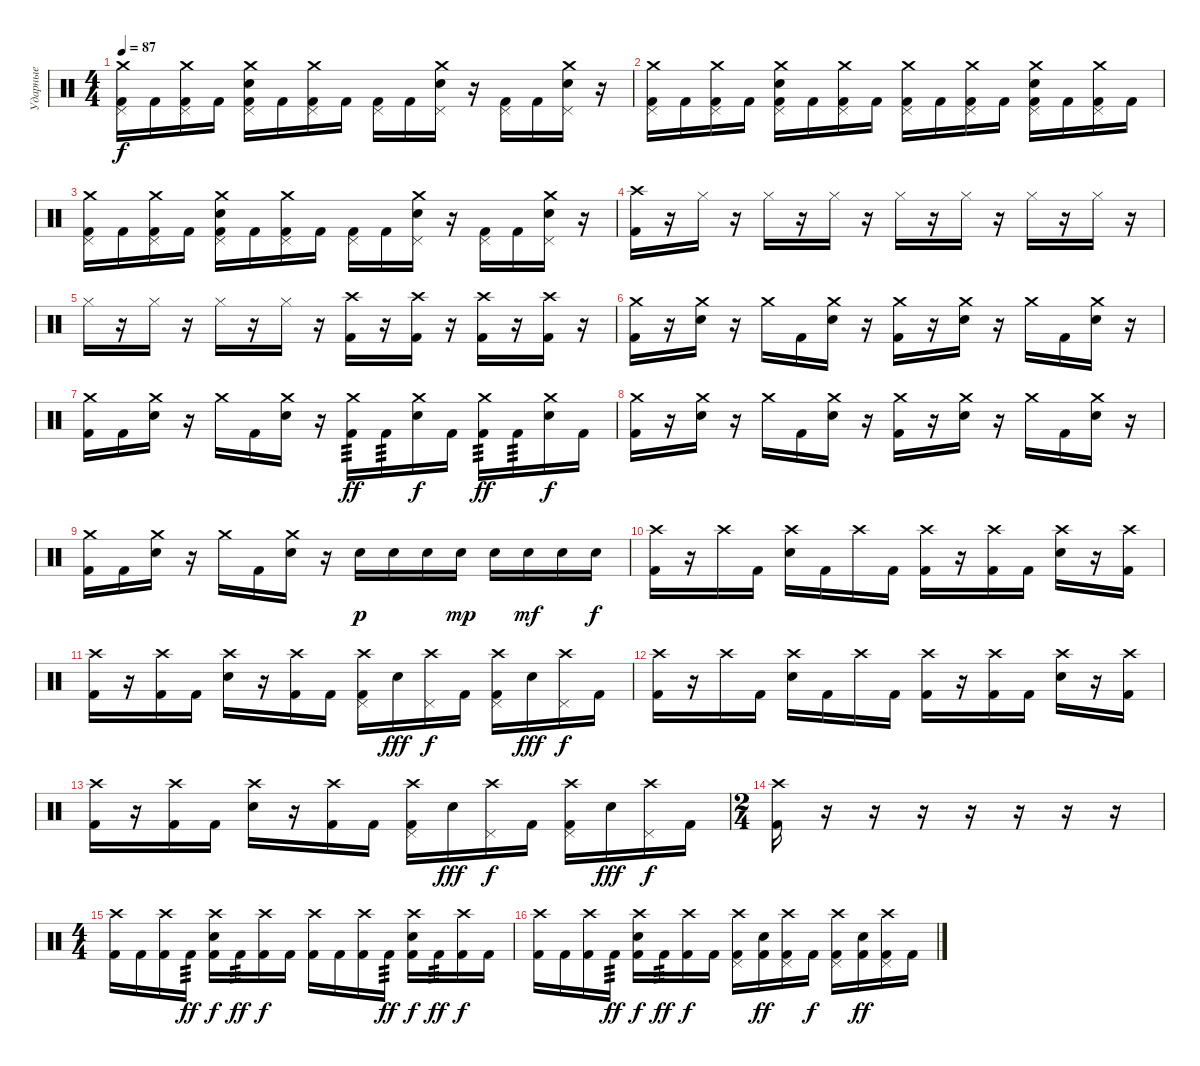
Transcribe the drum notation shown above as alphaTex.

\track ("Ударные" "Ударные") {instrument percussion}
\staff {score}
\articulation defaults
\ts (4 4)
\tempo 87
\clef neutral
\ks c
("Crash medium (hit)" "Pedal Hi-Hat (hit)" "Kick (hit) 2").16{dy f} "Kick (hit) 2".16 ("Crash medium (hit)" "Pedal Hi-Hat (hit)" "Kick (hit) 2").16 "Kick (hit) 2".16 ("Crash medium (hit)" "Pedal Hi-Hat (hit)" "Electric Snare (hit)" "Kick (hit) 2").16 "Kick (hit) 2".16 ("Crash medium (hit)" "Pedal Hi-Hat (hit)" "Kick (hit) 2").16 "Kick (hit) 2".16 ("Pedal Hi-Hat (hit)" "Kick (hit) 2").16 "Kick (hit) 2".16 ("Crash medium (hit)" "Pedal Hi-Hat (hit)" "Electric Snare (hit)").16 r.16 ("Pedal Hi-Hat (hit)" "Kick (hit) 2").16 "Kick (hit) 2".16 ("Crash medium (hit)" "Pedal Hi-Hat (hit)" "Electric Snare (hit)").16 r.16 |
("Crash medium (hit)" "Pedal Hi-Hat (hit)" "Kick (hit) 2").16 "Kick (hit) 2".16 ("Crash medium (hit)" "Pedal Hi-Hat (hit)" "Kick (hit) 2").16 "Kick (hit) 2".16 ("Crash medium (hit)" "Pedal Hi-Hat (hit)" "Electric Snare (hit)" "Kick (hit) 2").16 "Kick (hit) 2".16 ("Crash medium (hit)" "Pedal Hi-Hat (hit)" "Kick (hit) 2").16 "Kick (hit) 2".16 ("Crash medium (hit)" "Pedal Hi-Hat (hit)" "Kick (hit) 2").16 "Kick (hit) 2".16 ("Crash medium (hit)" "Pedal Hi-Hat (hit)" "Kick (hit) 2").16 "Kick (hit) 2".16 ("Crash medium (hit)" "Pedal Hi-Hat (hit)" "Electric Snare (hit)" "Kick (hit) 2").16 "Kick (hit) 2".16 ("Crash medium (hit)" "Pedal Hi-Hat (hit)" "Kick (hit) 2").16 "Kick (hit) 2".16 |
("Crash medium (hit)" "Pedal Hi-Hat (hit)" "Kick (hit) 2").16 "Kick (hit) 2".16 ("Crash medium (hit)" "Pedal Hi-Hat (hit)" "Kick (hit) 2").16 "Kick (hit) 2".16 ("Crash medium (hit)" "Pedal Hi-Hat (hit)" "Electric Snare (hit)" "Kick (hit) 2").16 "Kick (hit) 2".16 ("Crash medium (hit)" "Pedal Hi-Hat (hit)" "Kick (hit) 2").16 "Kick (hit) 2".16 ("Pedal Hi-Hat (hit)" "Kick (hit) 2").16 "Kick (hit) 2".16 ("Crash medium (hit)" "Pedal Hi-Hat (hit)" "Electric Snare (hit)").16 r.16 ("Pedal Hi-Hat (hit)" "Kick (hit) 2").16 "Kick (hit) 2".16 ("Crash medium (hit)" "Pedal Hi-Hat (hit)" "Electric Snare (hit)").16 r.16 |
("Crash high (hit)" "Kick (hit) 2").16 r.16 "Hi-Hat (closed)".16 r.16 "Hi-Hat (closed)".16 r.16 "Hi-Hat (closed)".16 r.16 "Hi-Hat (closed)".16 r.16 "Hi-Hat (closed)".16 r.16 "Hi-Hat (closed)".16 r.16 "Hi-Hat (closed)".16 r.16 |
"Hi-Hat (closed)".16 r.16 "Hi-Hat (closed)".16 r.16 "Hi-Hat (closed)".16 r.16 "Hi-Hat (closed)".16 r.16 ("Crash high (hit)" "Kick (hit) 2").16 r.16 ("Crash high (hit)" "Kick (hit) 2").16 r.16 ("Crash high (hit)" "Kick (hit) 2").16 r.16 ("Crash high (hit)" "Kick (hit) 2").16 r.16 |
("Crash medium (hit)" "Kick (hit) 2").16 r.16 ("Crash medium (hit)" "Electric Snare (hit)").16 r.16 "Crash medium (hit)".16 "Kick (hit) 2".16 ("Crash medium (hit)" "Electric Snare (hit)").16 r.16 ("Crash medium (hit)" "Kick (hit) 2").16 r.16 ("Crash medium (hit)" "Electric Snare (hit)").16 r.16 "Crash medium (hit)".16 "Kick (hit) 2".16 ("Crash medium (hit)" "Electric Snare (hit)").16 r.16 |
("Crash medium (hit)" "Kick (hit) 2").16 "Kick (hit) 2".16 ("Crash medium (hit)" "Electric Snare (hit)").16 r.16 "Crash medium (hit)".16 "Kick (hit) 2".16 ("Crash medium (hit)" "Electric Snare (hit)").16 r.16 ("Crash medium (hit)" "Kick (hit) 2").16{tp 3 dy ff} "Kick (hit) 2".16{tp 3} ("Crash medium (hit)" "Electric Snare (hit)").16{dy f} "Kick (hit) 2".16 ("Crash medium (hit)" "Kick (hit) 2").16{tp 3 dy ff} "Kick (hit) 2".16{tp 3} ("Crash medium (hit)" "Electric Snare (hit)").16{dy f} "Kick (hit) 2".16 |
("Crash medium (hit)" "Kick (hit) 2").16 r.16 ("Crash medium (hit)" "Electric Snare (hit)").16 r.16 "Crash medium (hit)".16 "Kick (hit) 2".16 ("Crash medium (hit)" "Electric Snare (hit)").16 r.16 ("Crash medium (hit)" "Kick (hit) 2").16 r.16 ("Crash medium (hit)" "Electric Snare (hit)").16 r.16 "Crash medium (hit)".16 "Kick (hit) 2".16 ("Crash medium (hit)" "Electric Snare (hit)").16 r.16 |
("Crash medium (hit)" "Kick (hit) 2").16 "Kick (hit) 2".16 ("Crash medium (hit)" "Electric Snare (hit)").16 r.16 "Crash medium (hit)".16 "Kick (hit) 2".16 ("Crash medium (hit)" "Electric Snare (hit)").16 r.16 "Electric Snare (hit)".16{dy p} "Electric Snare (hit)".16 "Electric Snare (hit)".16 "Electric Snare (hit)".16{dy mp} "Electric Snare (hit)".16 "Electric Snare (hit)".16{dy mf} "Electric Snare (hit)".16 "Electric Snare (hit)".16{dy f} |
("Crash high (hit)" "Kick (hit) 2").16 r.16 "Crash high (hit)".16 "Kick (hit) 2".16 ("Crash high (hit)" "Electric Snare (hit)").16 "Kick (hit) 2".16 "Crash high (hit)".16 "Kick (hit) 2".16 ("Crash high (hit)" "Kick (hit) 2").16 r.16 ("Crash high (hit)" "Kick (hit) 2").16 "Kick (hit) 2".16 ("Crash high (hit)" "Electric Snare (hit)").16 r.16 ("Crash high (hit)" "Kick (hit) 2").16 |
("Crash high (hit)" "Kick (hit) 2").16 r.16 ("Crash high (hit)" "Kick (hit) 2").16 "Kick (hit) 2".16 ("Crash high (hit)" "Electric Snare (hit)").16 r.16 ("Crash high (hit)" "Kick (hit) 2").16 "Kick (hit) 2".16 ("Crash high (hit)" "Pedal Hi-Hat (hit)" "Kick (hit) 2").16 "Electric Snare (hit)".16{dy fff} ("Crash high (hit)" "Pedal Hi-Hat (hit)").16{dy f} "Kick (hit) 2".16 ("Crash high (hit)" "Pedal Hi-Hat (hit)" "Kick (hit) 2").16 "Electric Snare (hit)".16{dy fff} ("Crash high (hit)" "Pedal Hi-Hat (hit)").16{dy f} "Kick (hit) 2".16 |
("Crash high (hit)" "Kick (hit) 2").16 r.16 "Crash high (hit)".16 "Kick (hit) 2".16 ("Crash high (hit)" "Electric Snare (hit)").16 "Kick (hit) 2".16 "Crash high (hit)".16 "Kick (hit) 2".16 ("Crash high (hit)" "Kick (hit) 2").16 r.16 ("Crash high (hit)" "Kick (hit) 2").16 "Kick (hit) 2".16 ("Crash high (hit)" "Electric Snare (hit)").16 r.16 ("Crash high (hit)" "Kick (hit) 2").16 |
("Crash high (hit)" "Kick (hit) 2").16 r.16 ("Crash high (hit)" "Kick (hit) 2").16 "Kick (hit) 2".16 ("Crash high (hit)" "Electric Snare (hit)").16 r.16 ("Crash high (hit)" "Kick (hit) 2").16 "Kick (hit) 2".16 ("Crash high (hit)" "Pedal Hi-Hat (hit)" "Kick (hit) 2").16 "Electric Snare (hit)".16{dy fff} ("Crash high (hit)" "Pedal Hi-Hat (hit)").16{dy f} "Kick (hit) 2".16 ("Crash high (hit)" "Pedal Hi-Hat (hit)" "Kick (hit) 2").16 "Electric Snare (hit)".16{dy fff} ("Crash high (hit)" "Pedal Hi-Hat (hit)").16{dy f} "Kick (hit) 2".16 |
\ts (2 4)
("Crash high (hit)" "Kick (hit) 2").16 r.16 r.16 r.16 r.16 r.16 r.16 r.16 |
\ts (4 4)
("Crash high (hit)" "Kick (hit) 2").16 "Kick (hit) 2".16 ("Crash high (hit)" "Kick (hit) 2").16 "Kick (hit) 2".16{tp 3 dy ff} ("Crash high (hit)" "Electric Snare (hit)" "Kick (hit) 2").16{dy f} "Kick (hit) 2".16{tp 3 dy ff} ("Crash high (hit)" "Kick (hit) 2").16{dy f} "Kick (hit) 2".16 ("Crash high (hit)" "Kick (hit) 2").16 "Kick (hit) 2".16 ("Crash high (hit)" "Kick (hit) 2").16 "Kick (hit) 2".16{tp 3 dy ff} ("Crash high (hit)" "Electric Snare (hit)" "Kick (hit) 2").16{dy f} "Kick (hit) 2".16{tp 3 dy ff} ("Crash high (hit)" "Kick (hit) 2").16{dy f} "Kick (hit) 2".16 |
("Crash high (hit)" "Kick (hit) 2").16 "Kick (hit) 2".16 ("Crash high (hit)" "Kick (hit) 2").16 "Kick (hit) 2".16{tp 3 dy ff} ("Crash high (hit)" "Electric Snare (hit)" "Kick (hit) 2").16{dy f} "Kick (hit) 2".16{tp 3 dy ff} ("Crash high (hit)" "Kick (hit) 2").16{dy f} "Kick (hit) 2".16 ("Crash high (hit)" "Pedal Hi-Hat (hit)" "Kick (hit) 2").16 ("Electric Snare (hit)" "Kick (hit) 2").16{dy ff} ("Crash high (hit)" "Pedal Hi-Hat (hit)" "Kick (hit) 2").16 "Kick (hit) 2".16{dy f} ("Crash high (hit)" "Pedal Hi-Hat (hit)" "Kick (hit) 2").16 ("Electric Snare (hit)" "Kick (hit) 2").16{dy ff} ("Crash high (hit)" "Pedal Hi-Hat (hit)" "Kick (hit) 2").16 "Kick (hit) 2".16
